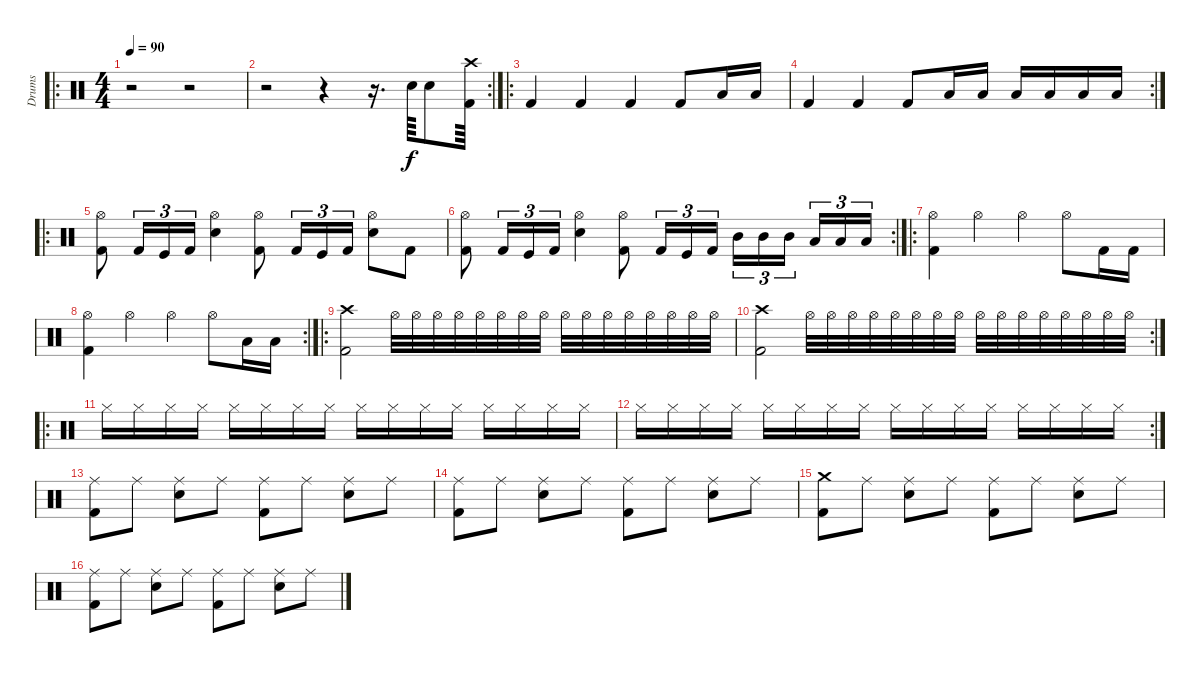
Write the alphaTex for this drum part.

\track ("Drums" "Drums") {instrument percussion}
\staff {score}
\articulation defaults
\ro
\ts (4 4)
\tempo 90
\clef neutral
\ks c
r.2{dy f} r.2 |
\rc 2
r.2 r.4 r.16{d} "Snare (hit) 2".64 "Snare (hit) 2".8 ("Crash high (hit)" "Kick (hit) 2").64 |
\ro "Kick (hit) 2".4 "Kick (hit) 2".4 "Kick (hit) 2".4 "Kick (hit) 2".8 "Low Tom (hit)".16 "Low Tom (hit)".16
|
\rc 2 "Kick (hit) 2".4 "Kick (hit) 2".4 "Kick (hit) 2".8 "Low Tom (hit)".16 "Low Tom (hit)".16 "Low Floor Tom (hit)".16 "Low Floor Tom (hit)".16 "Low Floor Tom (hit)".16 "Low Floor Tom (hit)".16
|
\ro
("Hi-Hat (open)" "Kick (hit) 2").8 "Kick (hit) 2".16{tu (3 2)} "Kick (hit)".16{tu (3 2)} "Kick (hit) 2".16{tu (3 2)} ("Hi-Hat (open)" "Snare (hit) 2").4 ("Kick (hit) 2" "Hi-Hat (open)").8 "Kick (hit) 2".16{tu (3 2)} "Kick (hit)".16{tu (3 2)} "Kick (hit) 2".16{tu (3 2)} ("Hi-Hat (open)" "Snare (hit) 2").8 "Kick (hit) 2".8 |
\rc 2
("Hi-Hat (open)" "Kick (hit) 2").8 "Kick (hit) 2".16{tu (3 2)} "Kick (hit)".16{tu (3 2)} "Kick (hit) 2".16{tu (3 2)} ("Hi-Hat (open)" "Snare (hit) 2").4 ("Kick (hit) 2" "Hi-Hat (open)").8 "Kick (hit) 2".16{tu (3 2)} "Kick (hit)".16{tu (3 2)} "Kick (hit) 2".16{tu (3 2)} "Mid Tom (hit)".16{tu (3 2)} "Mid Tom (hit)".16{tu (3 2)} "Mid Tom (hit)".16{tu (3 2)} "Low Tom (hit)".16{tu (3 2)} "Low Tom (hit)".16{tu (3 2)} "Low Tom (hit)".16{tu (3 2)} |
\ro
("Hi-Hat (open)" "Kick (hit) 2").4 "Hi-Hat (open)".4 "Hi-Hat (open)".4 "Hi-Hat (open)".8 "Kick (hit) 2".16 "Kick (hit) 2".16 |
\rc 2
("Hi-Hat (open)" "Kick (hit) 2").4 "Hi-Hat (open)".4 "Hi-Hat (open)".4 "Hi-Hat (open)".8 "Low Floor Tom (hit)".16 "Low Floor Tom (hit)".16 |
\ro
("Crash high (hit)" "Kick (hit) 2").2 "Hi-Hat (open)".32 "Hi-Hat (open)".32 "Hi-Hat (open)".32 "Hi-Hat (open)".32 "Hi-Hat (open)".32 "Hi-Hat (open)".32 "Hi-Hat (open)".32 "Hi-Hat (open)".32 "Hi-Hat (open)".32 "Hi-Hat (open)".32 "Hi-Hat (open)".32 "Hi-Hat (open)".32 "Hi-Hat (open)".32 "Hi-Hat (open)".32 "Hi-Hat (open)".32 "Hi-Hat (open)".32 |
\rc 2
("Crash high (hit)" "Kick (hit) 2").2 "Hi-Hat (open)".32 "Hi-Hat (open)".32 "Hi-Hat (open)".32 "Hi-Hat (open)".32 "Hi-Hat (open)".32 "Hi-Hat (open)".32 "Hi-Hat (open)".32 "Hi-Hat (open)".32 "Hi-Hat (open)".32 "Hi-Hat (open)".32 "Hi-Hat (open)".32 "Hi-Hat (open)".32 "Hi-Hat (open)".32 "Hi-Hat (open)".32 "Hi-Hat (open)".32 "Hi-Hat (open)".32 |
\ro "Hi-Hat (closed)".16 "Hi-Hat (closed)".16 "Hi-Hat (closed)".16 "Hi-Hat (closed)".16 "Hi-Hat (closed)".16 "Hi-Hat (closed)".16 "Hi-Hat (closed)".16 "Hi-Hat (closed)".16 "Hi-Hat (closed)".16 "Hi-Hat (closed)".16 "Hi-Hat (closed)".16 "Hi-Hat (closed)".16 "Hi-Hat (closed)".16 "Hi-Hat (closed)".16 "Hi-Hat (closed)".16 "Hi-Hat (closed)".16
|
\rc 2 "Hi-Hat (closed)".16 "Hi-Hat (closed)".16 "Hi-Hat (closed)".16 "Hi-Hat (closed)".16 "Hi-Hat (closed)".16 "Hi-Hat (closed)".16 "Hi-Hat (closed)".16 "Hi-Hat (closed)".16 "Hi-Hat (closed)".16 "Hi-Hat (closed)".16 "Hi-Hat (closed)".16 "Hi-Hat (closed)".16 "Hi-Hat (closed)".16 "Hi-Hat (closed)".16 "Hi-Hat (closed)".16 "Hi-Hat (closed)".16
|
("Ride (middle)" "Kick (hit) 2").8 "Ride (middle)".8 ("Ride (middle)" "Snare (hit) 2").8 "Ride (middle)".8 ("Ride (middle)" "Kick (hit) 2").8 "Ride (middle)".8 ("Ride (middle)" "Snare (hit) 2").8 "Ride (middle)".8 |
("Ride (middle)" "Kick (hit) 2").8 "Ride (middle)".8 ("Ride (middle)" "Snare (hit) 2").8 "Ride (middle)".8 ("Ride (middle)" "Kick (hit) 2").8 "Ride (middle)".8 ("Ride (middle)" "Snare (hit) 2").8 "Ride (middle)".8 |
("Crash medium (hit)" "Kick (hit) 2").8 "Ride (middle)".8 ("Ride (middle)" "Snare (hit) 2").8 "Ride (middle)".8 ("Ride (middle)" "Kick (hit) 2").8 "Ride (middle)".8 ("Ride (middle)" "Snare (hit) 2").8 "Ride (middle)".8 |
("Ride (middle)" "Kick (hit) 2").8 "Ride (middle)".8 ("Ride (middle)" "Snare (hit) 2").8 "Ride (middle)".8 ("Ride (middle)" "Kick (hit) 2").8 "Ride (middle)".8 ("Ride (middle)" "Snare (hit) 2").8 "Ride (middle)".8
